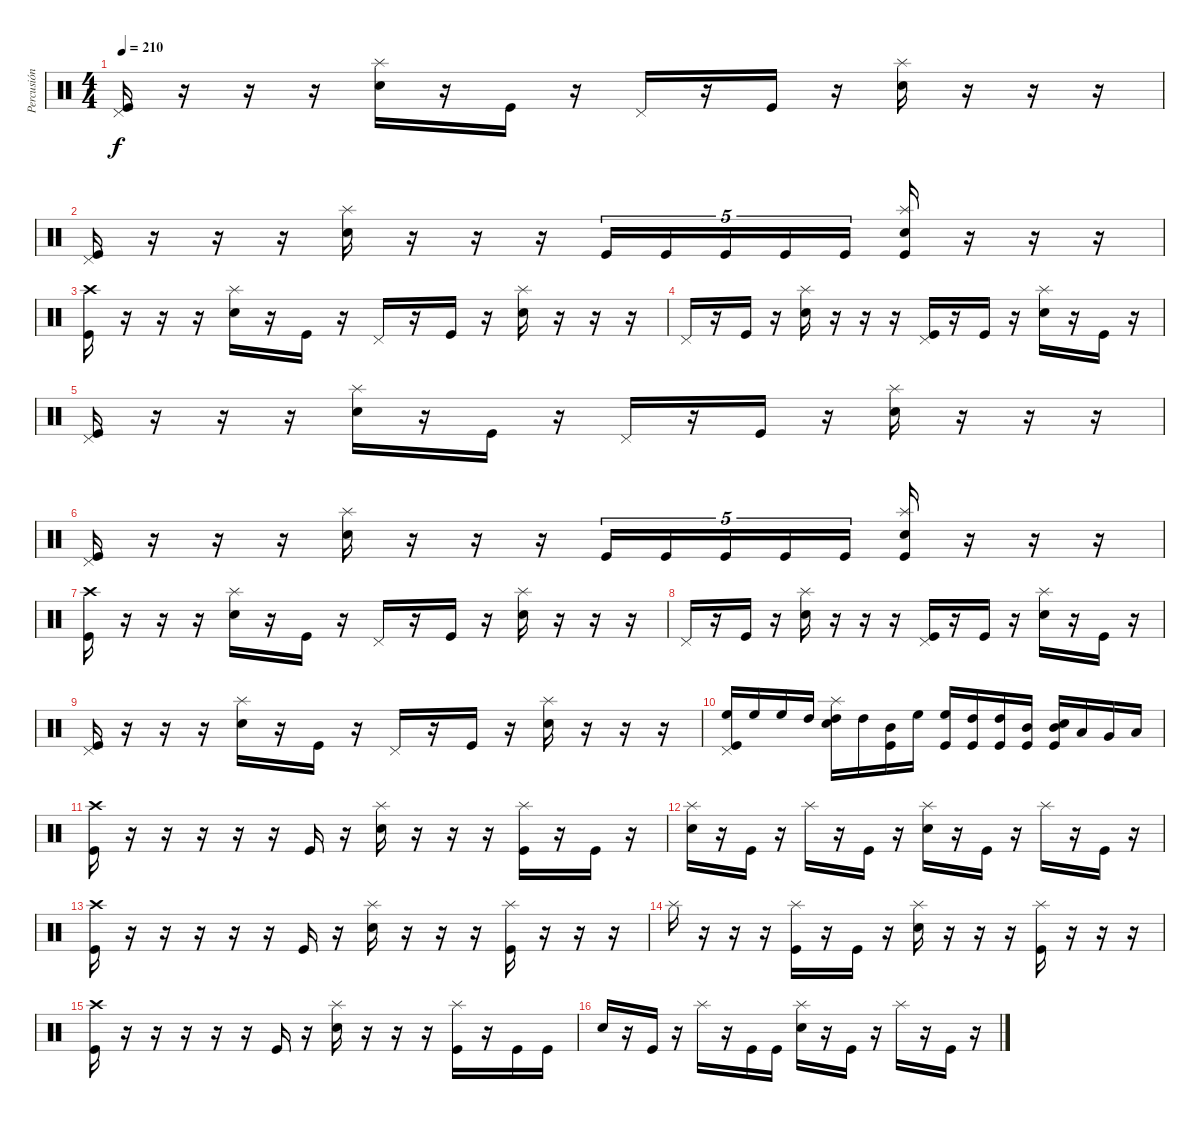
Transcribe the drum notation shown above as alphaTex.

\track ("Percusión" "Percusión") {instrument percussion}
\staff {score}
\articulation defaults
\ts (4 4)
\tempo 210
\clef neutral
\ks c
("Pedal Hi-Hat (hit)" "Kick (hit)").16{dy f} r.16 r.16 r.16 ("Splash (hit)" "Snare (hit) 2").16 r.16 "Kick (hit)".16 r.16 "Pedal Hi-Hat (hit)".16 r.16 "Kick (hit)".16 r.16 ("Splash (hit)" "Snare (hit) 2").16 r.16 r.16 r.16 |
("Pedal Hi-Hat (hit)" "Kick (hit)").16 r.16 r.16 r.16 ("Splash (hit)" "Snare (hit) 2").16 r.16 r.16 r.16 "Kick (hit)".16{tu (5 4)} "Kick (hit)".16{tu (5 4)} "Kick (hit)".16{tu (5 4)} "Kick (hit)".16{tu (5 4)} "Kick (hit)".16{tu (5 4)} ("Splash (hit)" "Snare (hit) 2" "Kick (hit)").16 r.16 r.16 r.16 |
("Crash high (hit)" "Kick (hit)").16 r.16 r.16 r.16 ("Splash (hit)" "Snare (hit) 2").16 r.16 "Kick (hit)".16 r.16 "Pedal Hi-Hat (hit)".16 r.16 "Kick (hit)".16 r.16 ("Splash (hit)" "Snare (hit) 2").16 r.16 r.16 r.16 |
"Pedal Hi-Hat (hit)".16 r.16 "Kick (hit)".16 r.16 ("Splash (hit)" "Snare (hit) 2").16 r.16 r.16 r.16 ("Pedal Hi-Hat (hit)" "Kick (hit)").16 r.16 "Kick (hit)".16 r.16 ("Splash (hit)" "Snare (hit) 2").16 r.16 "Kick (hit)".16 r.16 |
("Pedal Hi-Hat (hit)" "Kick (hit)").16 r.16 r.16 r.16 ("Splash (hit)" "Snare (hit) 2").16 r.16 "Kick (hit)".16 r.16 "Pedal Hi-Hat (hit)".16 r.16 "Kick (hit)".16 r.16 ("Splash (hit)" "Snare (hit) 2").16 r.16 r.16 r.16 |
("Pedal Hi-Hat (hit)" "Kick (hit)").16 r.16 r.16 r.16 ("Splash (hit)" "Snare (hit) 2").16 r.16 r.16 r.16 "Kick (hit)".16{tu (5 4)} "Kick (hit)".16{tu (5 4)} "Kick (hit)".16{tu (5 4)} "Kick (hit)".16{tu (5 4)} "Kick (hit)".16{tu (5 4)} ("Splash (hit)" "Snare (hit) 2" "Kick (hit)").16 r.16 r.16 r.16 |
("Crash high (hit)" "Kick (hit)").16 r.16 r.16 r.16 ("Splash (hit)" "Snare (hit) 2").16 r.16 "Kick (hit)".16 r.16 "Pedal Hi-Hat (hit)".16 r.16 "Kick (hit)".16 r.16 ("Splash (hit)" "Snare (hit) 2").16 r.16 r.16 r.16 |
"Pedal Hi-Hat (hit)".16 r.16 "Kick (hit)".16 r.16 ("Splash (hit)" "Snare (hit) 2").16 r.16 r.16 r.16 ("Pedal Hi-Hat (hit)" "Kick (hit)").16 r.16 "Kick (hit)".16 r.16 ("Splash (hit)" "Snare (hit) 2").16 r.16 "Kick (hit)".16 r.16 |
("Pedal Hi-Hat (hit)" "Kick (hit)").16 r.16 r.16 r.16 ("Splash (hit)" "Snare (hit) 2").16 r.16 "Kick (hit)".16 r.16 "Pedal Hi-Hat (hit)".16 r.16 "Kick (hit)".16 r.16 ("Splash (hit)" "Snare (hit) 2").16 r.16 r.16 r.16 |
("High Floor Tom (hit)" "Pedal Hi-Hat (hit)" "Kick (hit)").16 "High Floor Tom (hit)".16 "High Floor Tom (hit)".16 "High Tom (hit)".16 ("High Tom (hit)" "Splash (hit)" "Snare (hit) 2").16 "High Tom (hit)".16 ("Mid Tom (hit)" "Kick (hit)").16 "High Floor Tom (hit)".16 ("High Floor Tom (hit)" "Kick (hit)").16 ("High Tom (hit)" "Kick (hit)").16 ("High Tom (hit)" "Kick (hit)").16 ("Mid Tom (hit)" "Kick (hit)").16 ("Mid Tom (hit)" "Snare (hit) 2" "Kick (hit)").16 "Low Tom (hit)".16 "Very Low Tom (hit)".16 "Low Floor Tom (hit)".16 |
("Crash high (hit)" "Kick (hit)").16 r.16 r.16 r.16 r.16 r.16 "Kick (hit)".16 r.16 ("Splash (hit)" "Snare (hit) 2").16 r.16 r.16 r.16 ("Splash (hit)" "Kick (hit)").16 r.16 "Kick (hit)".16 r.16 |
("Splash (hit)" "Snare (hit) 2").16 r.16 "Kick (hit)".16 r.16 "Splash (hit)".16 r.16 "Kick (hit)".16 r.16 ("Splash (hit)" "Snare (hit) 2").16 r.16 "Kick (hit)".16 r.16 "Splash (hit)".16 r.16 "Kick (hit)".16 r.16 |
("Crash high (hit)" "Kick (hit)").16 r.16 r.16 r.16 r.16 r.16 "Kick (hit)".16 r.16 ("Splash (hit)" "Snare (hit) 2").16 r.16 r.16 r.16 ("Splash (hit)" "Kick (hit)").16 r.16 r.16 r.16 |
"Splash (hit)".16 r.16 r.16 r.16 ("Splash (hit)" "Kick (hit)").16 r.16 "Kick (hit)".16 r.16 ("Splash (hit)" "Snare (hit) 2").16 r.16 r.16 r.16 ("Splash (hit)" "Kick (hit)").16 r.16 r.16 r.16 |
("Crash high (hit)" "Kick (hit)").16 r.16 r.16 r.16 r.16 r.16 "Kick (hit)".16 r.16 ("Splash (hit)" "Snare (hit) 2").16 r.16 r.16 r.16 ("Splash (hit)" "Kick (hit)").16 r.16 "Kick (hit)".16 "Kick (hit)".16 |
"Snare (hit) 2".16 r.16 "Kick (hit)".16 r.16 "Splash (hit)".16 r.16 "Kick (hit)".16 "Kick (hit)".16 ("Splash (hit)" "Snare (hit) 2").16 r.16 "Kick (hit)".16 r.16 "Splash (hit)".16 r.16 "Kick (hit)".16 r.16
